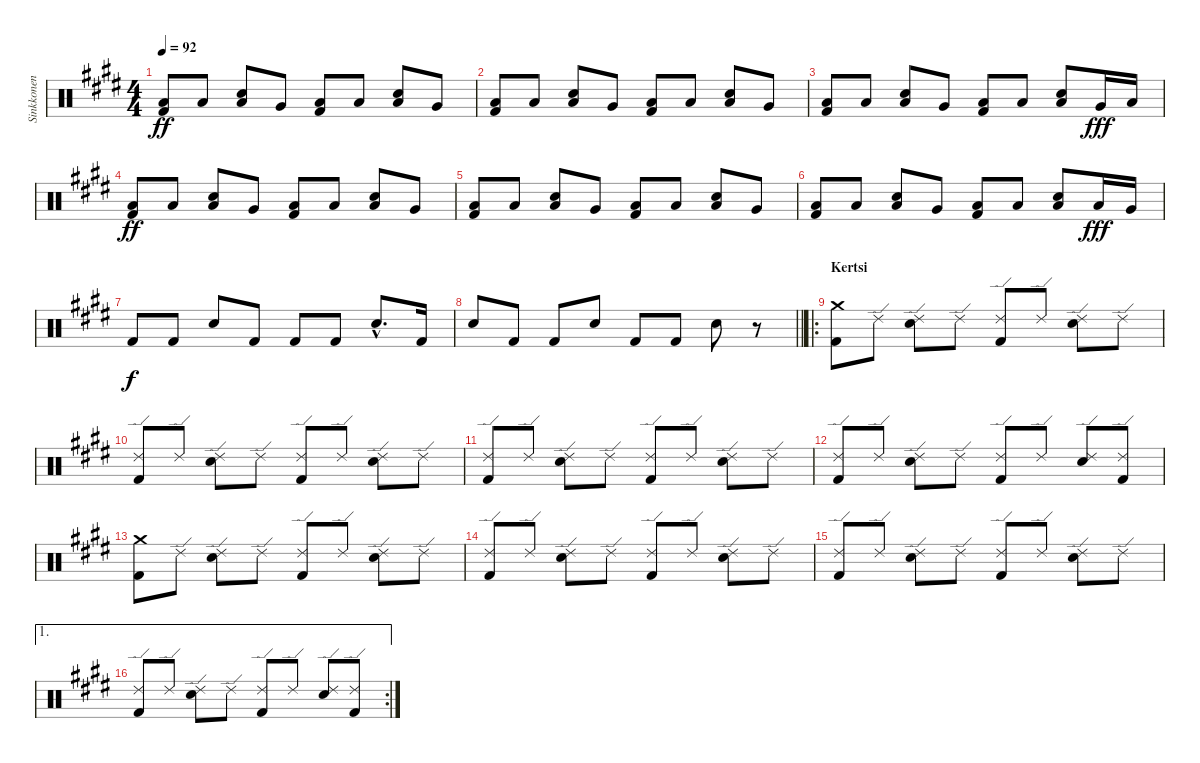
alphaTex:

\track ("Sinkkonen" "Sinkkonen") {instrument percussion}
\staff {score}
\articulation defaults
\ts (4 4)
\tempo 92
\clef neutral
\ks c#minor
("Kick (hit) 2" "Low Floor Tom (hit)").8{dy ff} "Low Floor Tom (hit)".8 ("Low Floor Tom (hit)" "Snare (hit) 2").8 "Very Low Tom (hit)".8 ("Kick (hit) 2" "Low Floor Tom (hit)").8 "Low Floor Tom (hit)".8 ("Low Floor Tom (hit)" "Snare (hit) 2").8 "Very Low Tom (hit)".8 |
("Kick (hit) 2" "Low Floor Tom (hit)").8 "Low Floor Tom (hit)".8 ("Low Floor Tom (hit)" "Snare (hit) 2").8 "Very Low Tom (hit)".8 ("Kick (hit) 2" "Low Floor Tom (hit)").8 "Low Floor Tom (hit)".8 ("Low Floor Tom (hit)" "Snare (hit) 2").8 "Very Low Tom (hit)".8 |
("Kick (hit) 2" "Low Floor Tom (hit)").8 "Low Floor Tom (hit)".8 ("Low Floor Tom (hit)" "Snare (hit) 2").8 "Very Low Tom (hit)".8 ("Kick (hit) 2" "Low Floor Tom (hit)").8 "Low Floor Tom (hit)".8 ("Low Floor Tom (hit)" "Snare (hit) 2").8 "Very Low Tom (hit)".16{dy fff} "Low Tom (hit)".16 |
("Kick (hit) 2" "Low Floor Tom (hit)").8{dy ff} "Low Floor Tom (hit)".8 ("Low Floor Tom (hit)" "Snare (hit) 2").8 "Very Low Tom (hit)".8 ("Kick (hit) 2" "Low Floor Tom (hit)").8 "Low Floor Tom (hit)".8 ("Low Floor Tom (hit)" "Snare (hit) 2").8 "Very Low Tom (hit)".8 |
("Kick (hit) 2" "Low Floor Tom (hit)").8 "Low Floor Tom (hit)".8 ("Low Floor Tom (hit)" "Snare (hit) 2").8 "Very Low Tom (hit)".8 ("Kick (hit) 2" "Low Floor Tom (hit)").8 "Low Floor Tom (hit)".8 ("Low Floor Tom (hit)" "Snare (hit) 2").8 "Very Low Tom (hit)".8 |
("Kick (hit) 2" "Low Floor Tom (hit)").8 "Low Floor Tom (hit)".8 ("Low Floor Tom (hit)" "Snare (hit) 2").8 "Very Low Tom (hit)".8 ("Kick (hit) 2" "Low Floor Tom (hit)").8 "Low Floor Tom (hit)".8 ("Low Floor Tom (hit)" "Snare (hit) 2").8 "Low Floor Tom (hit)".16{dy fff} "Very Low Tom (hit)".16 |
"Kick (hit) 2".8{dy f} "Kick (hit) 2".8 "Snare (hit) 2".8 "Kick (hit) 2".8 "Kick (hit) 2".8 "Kick (hit) 2".8 "Snare (hit) 2"{hac}.8{d} "Kick (hit) 2".16 |
\barLineRight lightlight "Snare (hit) 2".8 "Kick (hit) 2".8 "Kick (hit) 2".8 "Snare (hit) 2".8 "Kick (hit) 2".8 "Kick (hit) 2".8 "Snare (hit) 2".8
r.8 |
\ro
\section ("" "Kertsi")
("Kick (hit) 2" "Crash medium (hit)").8 "Ride (edge) 2".8 ("Ride (edge) 2" "Snare (hit) 2").8 "Ride (edge) 2".8 ("Kick (hit) 2" "Ride (edge) 2").8 "Ride (edge) 2".8 ("Ride (edge) 2" "Snare (hit) 2").8 "Ride (edge) 2".8 |
("Kick (hit) 2" "Ride (edge) 2").8 "Ride (edge) 2".8 ("Ride (edge) 2" "Snare (hit) 2").8 "Ride (edge) 2".8 ("Kick (hit) 2" "Ride (edge) 2").8 "Ride (edge) 2".8 ("Ride (edge) 2" "Snare (hit) 2").8 "Ride (edge) 2".8 |
("Kick (hit) 2" "Ride (edge) 2").8 "Ride (edge) 2".8 ("Ride (edge) 2" "Snare (hit) 2").8 "Ride (edge) 2".8 ("Kick (hit) 2" "Ride (edge) 2").8 "Ride (edge) 2".8 ("Ride (edge) 2" "Snare (hit) 2").8 "Ride (edge) 2".8 |
("Kick (hit) 2" "Ride (edge) 2").8 "Ride (edge) 2".8 ("Ride (edge) 2" "Snare (hit) 2").8 "Ride (edge) 2".8 ("Kick (hit) 2" "Ride (edge) 2").8 "Ride (edge) 2".8 ("Ride (edge) 2" "Snare (hit) 2").8 ("Kick (hit) 2" "Ride (edge) 2").8 |
("Kick (hit) 2" "Crash medium (hit)").8 "Ride (edge) 2".8 ("Ride (edge) 2" "Snare (hit) 2").8 "Ride (edge) 2".8 ("Kick (hit) 2" "Ride (edge) 2").8 "Ride (edge) 2".8 ("Ride (edge) 2" "Snare (hit) 2").8 "Ride (edge) 2".8 |
("Kick (hit) 2" "Ride (edge) 2").8 "Ride (edge) 2".8 ("Ride (edge) 2" "Snare (hit) 2").8 "Ride (edge) 2".8 ("Kick (hit) 2" "Ride (edge) 2").8 "Ride (edge) 2".8 ("Ride (edge) 2" "Snare (hit) 2").8 "Ride (edge) 2".8 |
("Kick (hit) 2" "Ride (edge) 2").8 "Ride (edge) 2".8 ("Ride (edge) 2" "Snare (hit) 2").8 "Ride (edge) 2".8 ("Kick (hit) 2" "Ride (edge) 2").8 "Ride (edge) 2".8 ("Ride (edge) 2" "Snare (hit) 2").8 "Ride (edge) 2".8 |
\ae 1
\rc 2
("Kick (hit) 2" "Ride (edge) 2").8 "Ride (edge) 2".8 ("Ride (edge) 2" "Snare (hit) 2").8 "Ride (edge) 2".8 ("Kick (hit) 2" "Ride (edge) 2").8 "Ride (edge) 2".8 ("Ride (edge) 2" "Snare (hit) 2").8 ("Kick (hit) 2" "Ride (edge) 2").8
